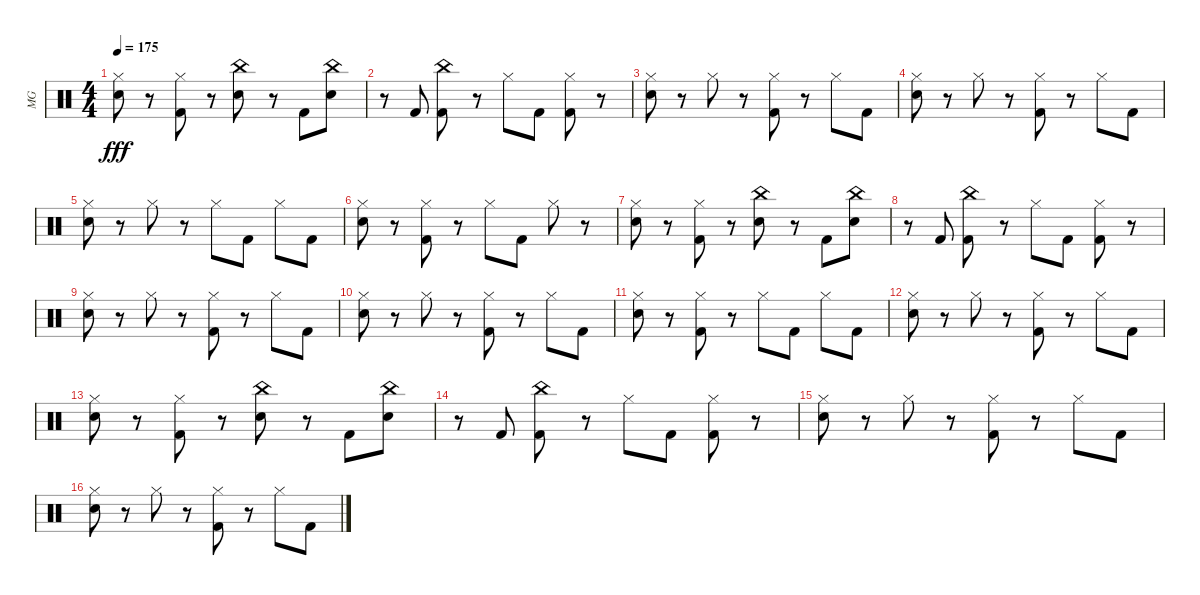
\track ("MG" "MG") {instrument percussion}
\staff {score}
\articulation defaults
\ts (4 4)
\tempo 175
\clef neutral
\ks c
("Hi-Hat (closed)" "Electric Snare (hit)").8{dy fff} r.8 ("Hi-Hat (closed)" "Kick (hit) 2").8 r.8 ("China (hit)" "Electric Snare (hit)").8 r.8 "Kick (hit) 2".8 ("China (hit)" "Electric Snare (hit)").8 |
r.8 "Kick (hit) 2".8 ("China (hit)" "Kick (hit) 2").8 r.8 "Hi-Hat (closed)".8 "Kick (hit) 2".8 ("Hi-Hat (closed)" "Kick (hit) 2").8 r.8 |
("Hi-Hat (closed)" "Electric Snare (hit)").8 r.8 "Hi-Hat (closed)".8 r.8 ("Hi-Hat (closed)" "Kick (hit) 2").8 r.8 "Hi-Hat (closed)".8 "Kick (hit) 2".8 |
("Hi-Hat (closed)" "Electric Snare (hit)").8 r.8 "Hi-Hat (closed)".8 r.8 ("Hi-Hat (closed)" "Kick (hit) 2").8 r.8 "Hi-Hat (closed)".8 "Kick (hit) 2".8 |
("Hi-Hat (closed)" "Electric Snare (hit)").8 r.8 "Hi-Hat (closed)".8 r.8 "Hi-Hat (closed)".8 "Kick (hit) 2".8 "Hi-Hat (closed)".8 "Kick (hit) 2".8 |
("Hi-Hat (closed)" "Electric Snare (hit)").8 r.8 ("Hi-Hat (closed)" "Kick (hit) 2").8 r.8 "Hi-Hat (closed)".8 "Kick (hit) 2".8 "Hi-Hat (closed)".8 r.8 |
("Hi-Hat (closed)" "Electric Snare (hit)").8 r.8 ("Hi-Hat (closed)" "Kick (hit) 2").8 r.8 ("China (hit)" "Electric Snare (hit)").8 r.8 "Kick (hit) 2".8 ("China (hit)" "Electric Snare (hit)").8 |
r.8 "Kick (hit) 2".8 ("China (hit)" "Kick (hit) 2").8 r.8 "Hi-Hat (closed)".8 "Kick (hit) 2".8 ("Hi-Hat (closed)" "Kick (hit) 2").8 r.8 |
("Hi-Hat (closed)" "Electric Snare (hit)").8 r.8 "Hi-Hat (closed)".8 r.8 ("Hi-Hat (closed)" "Kick (hit) 2").8 r.8 "Hi-Hat (closed)".8 "Kick (hit) 2".8 |
("Hi-Hat (closed)" "Electric Snare (hit)").8 r.8 "Hi-Hat (closed)".8 r.8 ("Hi-Hat (closed)" "Kick (hit) 2").8 r.8 "Hi-Hat (closed)".8 "Kick (hit) 2".8 |
("Hi-Hat (closed)" "Electric Snare (hit)").8 r.8 ("Hi-Hat (closed)" "Kick (hit) 2").8 r.8 "Hi-Hat (closed)".8 "Kick (hit) 2".8 "Hi-Hat (closed)".8 "Kick (hit) 2".8 |
("Hi-Hat (closed)" "Electric Snare (hit)").8 r.8 "Hi-Hat (closed)".8 r.8 ("Hi-Hat (closed)" "Kick (hit) 2").8 r.8 "Hi-Hat (closed)".8 "Kick (hit) 2".8 |
("Hi-Hat (closed)" "Electric Snare (hit)").8 r.8 ("Hi-Hat (closed)" "Kick (hit) 2").8 r.8 ("China (hit)" "Electric Snare (hit)").8 r.8 "Kick (hit) 2".8 ("China (hit)" "Electric Snare (hit)").8 |
r.8 "Kick (hit) 2".8 ("China (hit)" "Kick (hit) 2").8 r.8 "Hi-Hat (closed)".8 "Kick (hit) 2".8 ("Hi-Hat (closed)" "Kick (hit) 2").8 r.8 |
("Hi-Hat (closed)" "Electric Snare (hit)").8 r.8 "Hi-Hat (closed)".8 r.8 ("Hi-Hat (closed)" "Kick (hit) 2").8 r.8 "Hi-Hat (closed)".8 "Kick (hit) 2".8 |
("Hi-Hat (closed)" "Electric Snare (hit)").8 r.8 "Hi-Hat (closed)".8 r.8 ("Hi-Hat (closed)" "Kick (hit) 2").8 r.8 "Hi-Hat (closed)".8 "Kick (hit) 2".8
